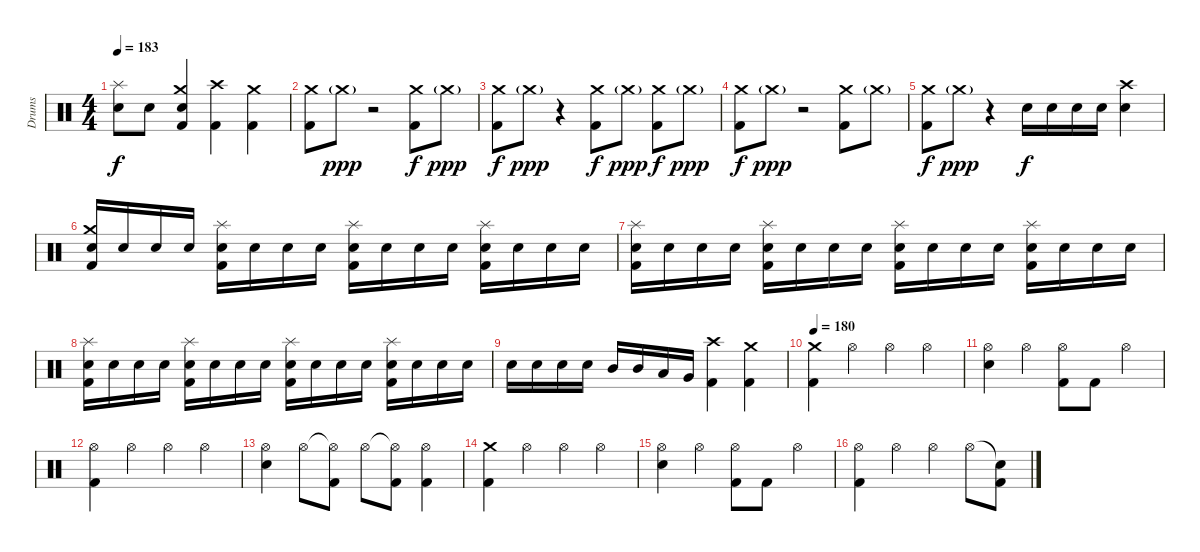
\track ("Drums" "Drums") {instrument percussion}
\staff {score}
\articulation defaults
\ts (4 4)
\tempo 183
\clef neutral
\ks c
("Splash (hit)" "Electric Snare (hit)").8{dy f} "Electric Snare (hit)".8 ("Crash medium (hit)" "Electric Snare (hit)" "Kick (hit) 2").4 ("Crash high (hit)" "Kick (hit) 2").4 ("Crash medium (hit)" "Kick (hit) 2").4 |
("Crash medium (hit)" "Kick (hit) 2").8 "Crash medium (hit)"{g}.8{dy ppp} r.2 ("Crash medium (hit)" "Kick (hit) 2").8{dy f} "Crash medium (hit)"{g}.8{dy ppp} |
("Crash medium (hit)" "Kick (hit) 2").8{dy f} "Crash medium (hit)"{g}.8{dy ppp} r.4 ("Crash medium (hit)" "Kick (hit) 2").8{dy f} "Crash medium (hit)"{g}.8{dy ppp} ("Crash medium (hit)" "Kick (hit) 2").8{dy f} "Crash medium (hit)"{g}.8{dy ppp} |
("Crash medium (hit)" "Kick (hit) 2").8{dy f} "Crash medium (hit)"{g}.8{dy ppp} r.2 ("Crash medium (hit)" "Kick (hit) 2").8 "Crash medium (hit)"{g}.8 |
("Crash medium (hit)" "Kick (hit) 2").8{dy f} "Crash medium (hit)"{g}.8{dy ppp} r.4 "Electric Snare (hit)".16{dy f} "Electric Snare (hit)".16 "Electric Snare (hit)".16 "Electric Snare (hit)".16 ("Crash high (hit)" "Electric Snare (hit)").4 |
("Crash medium (hit)" "Electric Snare (hit)" "Kick (hit) 2").16 "Electric Snare (hit)".16 "Electric Snare (hit)".16 "Electric Snare (hit)".16 ("Splash (hit)" "Electric Snare (hit)" "Kick (hit) 2").16 "Electric Snare (hit)".16 "Electric Snare (hit)".16 "Electric Snare (hit)".16 ("Splash (hit)" "Electric Snare (hit)" "Kick (hit) 2").16 "Electric Snare (hit)".16 "Electric Snare (hit)".16 "Electric Snare (hit)".16 ("Splash (hit)" "Electric Snare (hit)" "Kick (hit) 2").16 "Electric Snare (hit)".16 "Electric Snare (hit)".16 "Electric Snare (hit)".16 |
("Splash (hit)" "Electric Snare (hit)" "Kick (hit) 2").16 "Electric Snare (hit)".16 "Electric Snare (hit)".16 "Electric Snare (hit)".16 ("Splash (hit)" "Electric Snare (hit)" "Kick (hit) 2").16 "Electric Snare (hit)".16 "Electric Snare (hit)".16 "Electric Snare (hit)".16 ("Splash (hit)" "Electric Snare (hit)" "Kick (hit) 2").16 "Electric Snare (hit)".16 "Electric Snare (hit)".16 "Electric Snare (hit)".16 ("Splash (hit)" "Electric Snare (hit)" "Kick (hit) 2").16 "Electric Snare (hit)".16 "Electric Snare (hit)".16 "Electric Snare (hit)".16 |
("Splash (hit)" "Electric Snare (hit)" "Kick (hit) 2").16 "Electric Snare (hit)".16 "Electric Snare (hit)".16 "Electric Snare (hit)".16 ("Splash (hit)" "Electric Snare (hit)" "Kick (hit) 2").16 "Electric Snare (hit)".16 "Electric Snare (hit)".16 "Electric Snare (hit)".16 ("Splash (hit)" "Electric Snare (hit)" "Kick (hit) 2").16 "Electric Snare (hit)".16 "Electric Snare (hit)".16 "Electric Snare (hit)".16 ("Splash (hit)" "Electric Snare (hit)" "Kick (hit) 2").16 "Electric Snare (hit)".16 "Electric Snare (hit)".16 "Electric Snare (hit)".16 |
"Electric Snare (hit)".16 "Electric Snare (hit)".16 "Electric Snare (hit)".16 "Electric Snare (hit)".16 "Mid Tom (hit)".16 "Mid Tom (hit)".16 "Low Tom (hit)".16 "Very Low Tom (hit)".16 ("Crash high (hit)" "Kick (hit) 2").4 ("Crash medium (hit)" "Kick (hit) 2").4 |
\tempo 180
("Crash medium (hit)" "Kick (hit) 2").4 "Hi-Hat (open)".4 "Hi-Hat (open)".4 "Hi-Hat (open)".4 |
("Hi-Hat (open)" "Electric Snare (hit)").4 "Hi-Hat (open)".4 ("Hi-Hat (open)" "Kick (hit) 2").8 "Kick (hit) 2".8 "Hi-Hat (open)".4 |
("Hi-Hat (open)" "Kick (hit) 2").4 "Hi-Hat (open)".4 "Hi-Hat (open)".4 "Hi-Hat (open)".4 |
("Hi-Hat (open)" "Electric Snare (hit)").4 "Hi-Hat (open)".8 ("Hi-Hat (open)"{t} "Kick (hit) 2").8 "Hi-Hat (open)".8 ("Hi-Hat (open)"{t} "Kick (hit) 2").8 ("Hi-Hat (open)" "Kick (hit) 2").4 |
("Crash medium (hit)" "Kick (hit) 2").4 "Hi-Hat (open)".4 "Hi-Hat (open)".4 "Hi-Hat (open)".4 |
("Hi-Hat (open)" "Electric Snare (hit)").4 "Hi-Hat (open)".4 ("Hi-Hat (open)" "Kick (hit) 2").8 "Kick (hit) 2".8 "Hi-Hat (open)".4 |
("Hi-Hat (open)" "Kick (hit) 2").4 "Hi-Hat (open)".4 "Hi-Hat (open)".4 "Hi-Hat (open)".8 ("Snare (hit)"{t} "Kick (hit) 2").8
